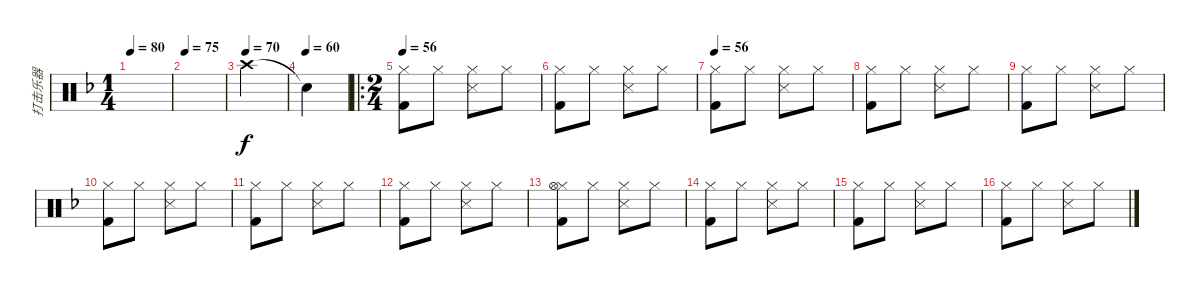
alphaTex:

\track ("打击乐器" "打击乐器") {instrument percussion}
\staff {score}
\articulation defaults
\ts (1 4)
\tempo 80
\clef neutral
\ks f
|
\tempo 75
|
\tempo (70)
"Crash high (hit)".4 |
\tempo (60)
"Snare (hit)"{t}.4 |
\ro
\ts (2 4)
\tempo 56
("Hi-Hat (closed)" "Kick (hit) 2").8 "Hi-Hat (closed)".8 ("Hi-Hat (closed)" "Snare (side stick) 3").8 "Hi-Hat (closed)".8 |
("Hi-Hat (closed)" "Kick (hit) 2").8 "Hi-Hat (closed)".8 ("Hi-Hat (closed)" "Snare (side stick) 3").8 "Hi-Hat (closed)".8 |
\tempo 56
("Hi-Hat (closed)" "Kick (hit) 2").8 "Hi-Hat (closed)".8 ("Hi-Hat (closed)" "Snare (side stick) 3").8 "Hi-Hat (closed)".8 |
("Hi-Hat (closed)" "Kick (hit) 2").8 "Hi-Hat (closed)".8 ("Hi-Hat (closed)" "Snare (side stick) 3").8 "Hi-Hat (closed)".8 |
("Hi-Hat (closed)" "Kick (hit) 2").8 "Hi-Hat (closed)".8 ("Hi-Hat (closed)" "Snare (side stick) 3").8 "Hi-Hat (closed)".8 |
("Hi-Hat (closed)" "Kick (hit) 2").8 "Hi-Hat (closed)".8 ("Hi-Hat (closed)" "Snare (side stick) 3").8 "Hi-Hat (closed)".8 |
("Hi-Hat (closed)" "Kick (hit) 2").8 "Hi-Hat (closed)".8 ("Hi-Hat (closed)" "Snare (side stick) 3").8 "Hi-Hat (closed)".8 |
("Hi-Hat (closed)" "Kick (hit) 2").8 "Hi-Hat (closed)".8 ("Hi-Hat (closed)" "Snare (side stick) 3").8 "Hi-Hat (closed)".8 |
("Hi-Hat (closed)" "Hi-Hat (open)" "Kick (hit) 2").8 "Hi-Hat (closed)".8 ("Hi-Hat (closed)" "Snare (side stick) 3").8 "Hi-Hat (closed)".8 |
("Hi-Hat (closed)" "Kick (hit) 2").8 "Hi-Hat (closed)".8 ("Hi-Hat (closed)" "Snare (side stick) 3").8 "Hi-Hat (closed)".8 |
("Hi-Hat (closed)" "Kick (hit) 2").8 "Hi-Hat (closed)".8 ("Hi-Hat (closed)" "Snare (side stick) 3").8 "Hi-Hat (closed)".8 |
("Hi-Hat (closed)" "Kick (hit) 2").8 "Hi-Hat (closed)".8 ("Hi-Hat (closed)" "Snare (side stick) 3").8 "Hi-Hat (closed)".8
